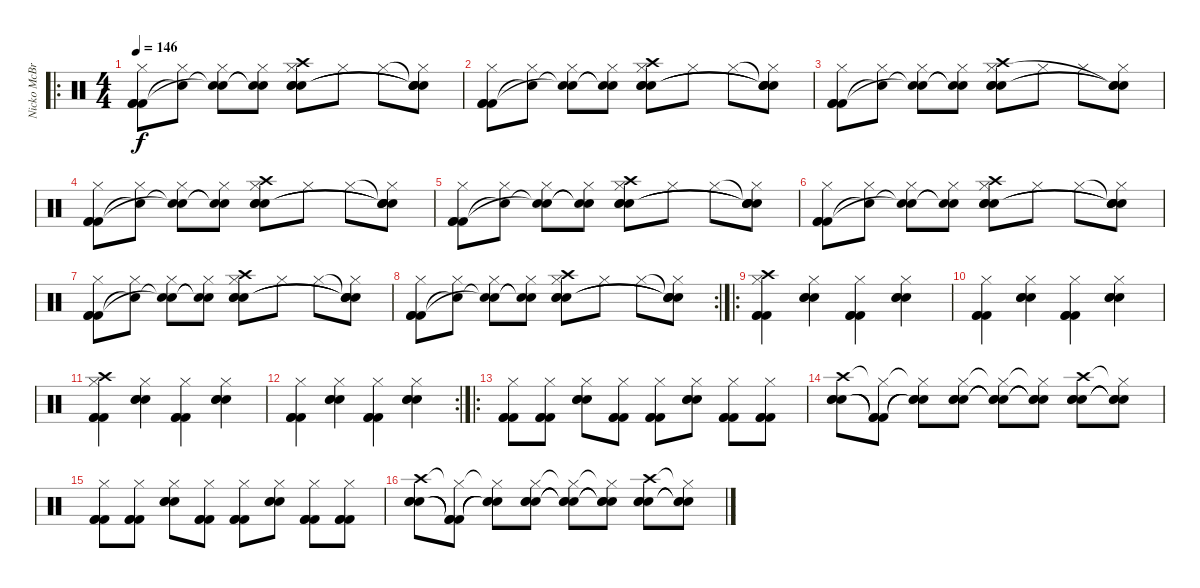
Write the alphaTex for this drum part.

\track ("Nicko McBrain" "Nicko McBr") {instrument percussion}
\staff {score}
\articulation defaults
\ro
\ts (4 4)
\tempo 146
\clef neutral
\ks c
("Hi-Hat (closed)" "Kick (hit) 2" "Kick (hit) 2" "Kick (hit) 2").8{dy f} ("Hi-Hat (closed)" "Snare (hit)"{t}).8 ("Hi-Hat (closed)" "Snare (hit)"{t} "Snare (hit)"{t}).8 ("Hi-Hat (closed)" "Snare (hit)"{t} "Snare (hit)"{t}).8 ("Crash high (hit)" "Hi-Hat (closed)" "Snare (hit) 2" "Snare (hit) 2" "Snare (hit) 2").8 "Hi-Hat (closed)".8 "Hi-Hat (closed)".8 ("Snare (hit)"{t} "Hi-Hat (closed)" "Snare (hit)"{t} "Snare (hit)"{t} "Snare (hit)"{t}).8 |
("Hi-Hat (closed)" "Kick (hit) 2" "Kick (hit) 2" "Kick (hit) 2").8 ("Hi-Hat (closed)" "Snare (hit)"{t}).8 ("Hi-Hat (closed)" "Snare (hit)"{t} "Snare (hit)"{t}).8 ("Hi-Hat (closed)" "Snare (hit)"{t} "Snare (hit)"{t}).8 ("Crash high (hit)" "Hi-Hat (closed)" "Snare (hit) 2" "Snare (hit) 2" "Snare (hit) 2").8 "Hi-Hat (closed)".8 "Hi-Hat (closed)".8 ("Snare (hit)"{t} "Hi-Hat (closed)" "Snare (hit)"{t} "Snare (hit)"{t} "Snare (hit)"{t}).8 |
("Hi-Hat (closed)" "Kick (hit) 2" "Kick (hit) 2" "Kick (hit) 2").8 ("Hi-Hat (closed)" "Snare (hit)"{t}).8 ("Hi-Hat (closed)" "Snare (hit)"{t} "Snare (hit)"{t}).8 ("Hi-Hat (closed)" "Snare (hit)"{t} "Snare (hit)"{t}).8 ("Crash high (hit)" "Hi-Hat (closed)" "Snare (hit) 2" "Snare (hit) 2" "Snare (hit) 2").8 "Hi-Hat (closed)".8 "Hi-Hat (closed)".8 ("Hi-Hat (closed)" "Snare (hit)"{t} "Snare (hit)"{t} "Snare (hit)"{t}).8 |
("Hi-Hat (closed)" "Kick (hit) 2" "Kick (hit) 2" "Kick (hit) 2").8 ("Hi-Hat (closed)" "Snare (hit)"{t}).8 ("Hi-Hat (closed)" "Snare (hit)"{t} "Snare (hit)"{t}).8 ("Hi-Hat (closed)" "Snare (hit)"{t} "Snare (hit)"{t}).8 ("Crash high (hit)" "Hi-Hat (closed)" "Snare (hit) 2" "Snare (hit) 2" "Snare (hit) 2").8 "Hi-Hat (closed)".8 "Hi-Hat (closed)".8 ("Snare (hit)"{t} "Hi-Hat (closed)" "Snare (hit)"{t} "Snare (hit)"{t} "Snare (hit)"{t}).8 |
("Hi-Hat (closed)" "Kick (hit) 2" "Kick (hit) 2" "Kick (hit) 2").8 ("Hi-Hat (closed)" "Snare (hit)"{t}).8 ("Hi-Hat (closed)" "Snare (hit)"{t} "Snare (hit)"{t}).8 ("Hi-Hat (closed)" "Snare (hit)"{t} "Snare (hit)"{t}).8 ("Crash high (hit)" "Hi-Hat (closed)" "Snare (hit) 2" "Snare (hit) 2" "Snare (hit) 2").8 "Hi-Hat (closed)".8 "Hi-Hat (closed)".8 ("Snare (hit)"{t} "Hi-Hat (closed)" "Snare (hit)"{t} "Snare (hit)"{t} "Snare (hit)"{t}).8 |
("Hi-Hat (closed)" "Kick (hit) 2" "Kick (hit) 2" "Kick (hit) 2").8 ("Hi-Hat (closed)" "Snare (hit)"{t}).8 ("Hi-Hat (closed)" "Snare (hit)"{t} "Snare (hit)"{t}).8 ("Hi-Hat (closed)" "Snare (hit)"{t} "Snare (hit)"{t}).8 ("Crash high (hit)" "Hi-Hat (closed)" "Snare (hit) 2" "Snare (hit) 2" "Snare (hit) 2").8 "Hi-Hat (closed)".8 "Hi-Hat (closed)".8 ("Snare (hit)"{t} "Hi-Hat (closed)" "Snare (hit)"{t} "Snare (hit)"{t} "Snare (hit)"{t}).8 |
("Hi-Hat (closed)" "Kick (hit) 2" "Kick (hit) 2" "Kick (hit) 2").8 ("Hi-Hat (closed)" "Snare (hit)"{t}).8 ("Hi-Hat (closed)" "Snare (hit)"{t} "Snare (hit)"{t}).8 ("Hi-Hat (closed)" "Snare (hit)"{t} "Snare (hit)"{t}).8 ("Crash high (hit)" "Hi-Hat (closed)" "Snare (hit) 2" "Snare (hit) 2" "Snare (hit) 2").8 "Hi-Hat (closed)".8 "Hi-Hat (closed)".8 ("Snare (hit)"{t} "Hi-Hat (closed)" "Snare (hit)"{t} "Snare (hit)"{t} "Snare (hit)"{t}).8 |
\rc 2
("Hi-Hat (closed)" "Kick (hit) 2" "Kick (hit) 2" "Kick (hit) 2").8 ("Hi-Hat (closed)" "Snare (hit)"{t}).8 ("Hi-Hat (closed)" "Snare (hit)"{t} "Snare (hit)"{t}).8 ("Hi-Hat (closed)" "Snare (hit)"{t} "Snare (hit)"{t}).8 ("Crash high (hit)" "Hi-Hat (closed)" "Snare (hit) 2" "Snare (hit) 2" "Snare (hit) 2").8 "Hi-Hat (closed)".8 "Hi-Hat (closed)".8 ("Snare (hit)"{t} "Hi-Hat (closed)" "Snare (hit)"{t} "Snare (hit)"{t} "Snare (hit)"{t}).8 |
\ro
("Crash high (hit)" "Hi-Hat (closed)" "Kick (hit) 2" "Kick (hit) 2" "Kick (hit) 2").4 ("Hi-Hat (closed)" "Snare (hit) 2" "Snare (hit) 2" "Snare (hit) 2").4 ("Hi-Hat (closed)" "Kick (hit) 2" "Kick (hit) 2" "Kick (hit) 2").4 ("Hi-Hat (closed)" "Snare (hit) 2" "Snare (hit) 2" "Snare (hit) 2").4 |
("Hi-Hat (closed)" "Kick (hit) 2" "Kick (hit) 2" "Kick (hit) 2").4 ("Hi-Hat (closed)" "Snare (hit) 2" "Snare (hit) 2" "Snare (hit) 2").4 ("Hi-Hat (closed)" "Kick (hit) 2" "Kick (hit) 2" "Kick (hit) 2").4 ("Hi-Hat (closed)" "Snare (hit) 2" "Snare (hit) 2" "Snare (hit) 2").4 |
("Crash high (hit)" "Hi-Hat (closed)" "Kick (hit) 2" "Kick (hit) 2" "Kick (hit) 2").4 ("Hi-Hat (closed)" "Snare (hit) 2" "Snare (hit) 2" "Snare (hit) 2").4 ("Hi-Hat (closed)" "Kick (hit) 2" "Kick (hit) 2" "Kick (hit) 2").4 ("Hi-Hat (closed)" "Snare (hit) 2" "Snare (hit) 2" "Snare (hit) 2").4 |
\rc 2
("Hi-Hat (closed)" "Kick (hit) 2" "Kick (hit) 2" "Kick (hit) 2").4 ("Hi-Hat (closed)" "Snare (hit) 2" "Snare (hit) 2" "Snare (hit) 2").4 ("Hi-Hat (closed)" "Kick (hit) 2" "Kick (hit) 2" "Kick (hit) 2").4 ("Hi-Hat (closed)" "Snare (hit) 2" "Snare (hit) 2" "Snare (hit) 2").4 |
\ro
("Hi-Hat (closed)" "Kick (hit) 2" "Kick (hit) 2" "Kick (hit) 2").8 ("Hi-Hat (closed)" "Kick (hit) 2" "Kick (hit) 2" "Kick (hit) 2").8 ("Hi-Hat (closed)" "Snare (hit) 2" "Snare (hit) 2" "Snare (hit) 2").8 ("Hi-Hat (closed)" "Kick (hit) 2" "Kick (hit) 2" "Kick (hit) 2").8 ("Hi-Hat (closed)" "Kick (hit) 2" "Kick (hit) 2" "Kick (hit) 2").8 ("Hi-Hat (closed)" "Snare (hit) 2" "Snare (hit) 2" "Snare (hit) 2").8 ("Hi-Hat (closed)" "Kick (hit) 2" "Kick (hit) 2" "Kick (hit) 2").8 ("Hi-Hat (closed)" "Kick (hit) 2" "Kick (hit) 2" "Kick (hit) 2").8 |
("Crash high (hit)" "Snare (hit) 2" "Snare (hit) 2" "Snare (hit) 2").8 ("Hi-Hat (closed)"{t} "Kick (hit) 2"{t} "Kick (hit) 2"{t} "Kick (hit) 2"{t}).8 ("Hi-Hat (closed)"{t} "Snare (hit) 2"{t} "Snare (hit) 2"{t} "Snare (hit) 2"{t}).8 ("Hi-Hat (closed)" "Snare (hit) 2" "Snare (hit) 2" "Snare (hit) 2").8 ("Hi-Hat (closed)"{t} "Snare (hit) 2"{t} "Snare (hit) 2"{t} "Snare (hit) 2"{t}).8 ("Hi-Hat (closed)"{t} "Snare (hit) 2"{t} "Snare (hit) 2"{t} "Snare (hit) 2"{t}).8 ("Crash high (hit)" "Snare (hit) 2" "Snare (hit) 2" "Snare (hit) 2").8 ("Hi-Hat (closed)"{t} "Snare (hit) 2"{t} "Snare (hit) 2"{t} "Snare (hit) 2"{t}).8 |
("Hi-Hat (closed)" "Kick (hit) 2" "Kick (hit) 2" "Kick (hit) 2").8 ("Hi-Hat (closed)" "Kick (hit) 2" "Kick (hit) 2" "Kick (hit) 2").8 ("Hi-Hat (closed)" "Snare (hit) 2" "Snare (hit) 2" "Snare (hit) 2").8 ("Hi-Hat (closed)" "Kick (hit) 2" "Kick (hit) 2" "Kick (hit) 2").8 ("Hi-Hat (closed)" "Kick (hit) 2" "Kick (hit) 2" "Kick (hit) 2").8 ("Hi-Hat (closed)" "Snare (hit) 2" "Snare (hit) 2" "Snare (hit) 2").8 ("Hi-Hat (closed)" "Kick (hit) 2" "Kick (hit) 2" "Kick (hit) 2").8 ("Hi-Hat (closed)" "Kick (hit) 2" "Kick (hit) 2" "Kick (hit) 2").8 |
("Crash high (hit)" "Snare (hit) 2" "Snare (hit) 2" "Snare (hit) 2").8 ("Hi-Hat (closed)"{t} "Kick (hit) 2"{t} "Kick (hit) 2"{t} "Kick (hit) 2"{t}).8 ("Hi-Hat (closed)"{t} "Snare (hit) 2"{t} "Snare (hit) 2"{t} "Snare (hit) 2"{t}).8 ("Hi-Hat (closed)" "Snare (hit) 2" "Snare (hit) 2" "Snare (hit) 2").8 ("Hi-Hat (closed)"{t} "Snare (hit) 2"{t} "Snare (hit) 2"{t} "Snare (hit) 2"{t}).8 ("Hi-Hat (closed)"{t} "Snare (hit) 2"{t} "Snare (hit) 2"{t} "Snare (hit) 2"{t}).8 ("Crash high (hit)" "Snare (hit) 2" "Snare (hit) 2" "Snare (hit) 2").8 ("Hi-Hat (closed)"{t} "Snare (hit) 2"{t} "Snare (hit) 2"{t} "Snare (hit) 2"{t}).8
